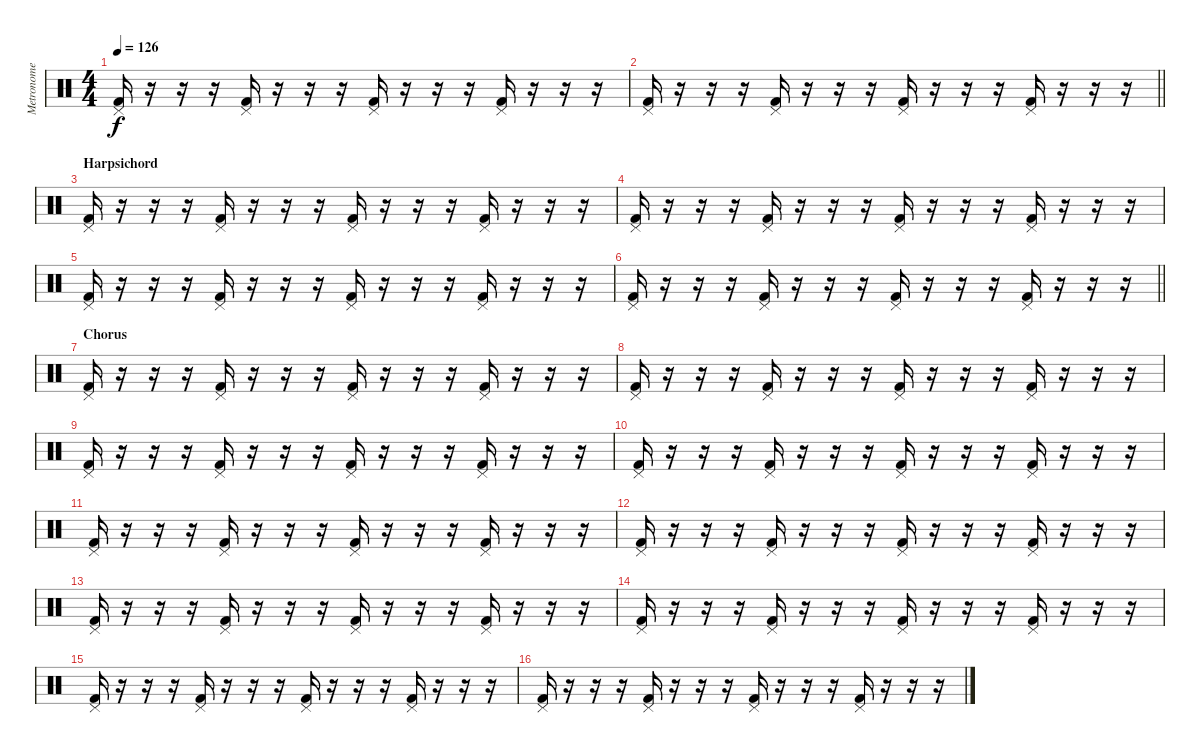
\track ("Metronome" "Metronome") {mute instrument percussion}
\staff {score}
\articulation defaults
\ts (4 4)
\tempo 126
\clef neutral
\ks c
("Pedal Hi-Hat (hit)" "Kick (hit) 2").16{dy f} r.16 r.16 r.16 ("Pedal Hi-Hat (hit)" "Kick (hit) 2").16 r.16 r.16 r.16 ("Pedal Hi-Hat (hit)" "Kick (hit) 2").16 r.16 r.16 r.16 ("Pedal Hi-Hat (hit)" "Kick (hit) 2").16 r.16 r.16 r.16 |
\barLineRight lightlight
("Pedal Hi-Hat (hit)" "Kick (hit) 2").16 r.16 r.16 r.16 ("Pedal Hi-Hat (hit)" "Kick (hit) 2").16 r.16 r.16 r.16 ("Pedal Hi-Hat (hit)" "Kick (hit) 2").16 r.16 r.16 r.16 ("Pedal Hi-Hat (hit)" "Kick (hit) 2").16 r.16 r.16 r.16 |
\section ("" "Harpsichord")
("Pedal Hi-Hat (hit)" "Kick (hit) 2").16 r.16 r.16 r.16 ("Pedal Hi-Hat (hit)" "Kick (hit) 2").16 r.16 r.16 r.16 ("Pedal Hi-Hat (hit)" "Kick (hit) 2").16 r.16 r.16 r.16 ("Pedal Hi-Hat (hit)" "Kick (hit) 2").16 r.16 r.16 r.16 |
("Pedal Hi-Hat (hit)" "Kick (hit) 2").16 r.16 r.16 r.16 ("Pedal Hi-Hat (hit)" "Kick (hit) 2").16 r.16 r.16 r.16 ("Pedal Hi-Hat (hit)" "Kick (hit) 2").16 r.16 r.16 r.16 ("Pedal Hi-Hat (hit)" "Kick (hit) 2").16 r.16 r.16 r.16 |
("Pedal Hi-Hat (hit)" "Kick (hit) 2").16 r.16 r.16 r.16 ("Pedal Hi-Hat (hit)" "Kick (hit) 2").16 r.16 r.16 r.16 ("Pedal Hi-Hat (hit)" "Kick (hit) 2").16 r.16 r.16 r.16 ("Pedal Hi-Hat (hit)" "Kick (hit) 2").16 r.16 r.16 r.16 |
\barLineRight lightlight
("Pedal Hi-Hat (hit)" "Kick (hit) 2").16 r.16 r.16 r.16 ("Pedal Hi-Hat (hit)" "Kick (hit) 2").16 r.16 r.16 r.16 ("Pedal Hi-Hat (hit)" "Kick (hit) 2").16 r.16 r.16 r.16 ("Pedal Hi-Hat (hit)" "Kick (hit) 2").16 r.16 r.16 r.16 |
\section ("" "Chorus")
("Pedal Hi-Hat (hit)" "Kick (hit) 2").16 r.16 r.16 r.16 ("Pedal Hi-Hat (hit)" "Kick (hit) 2").16 r.16 r.16 r.16 ("Pedal Hi-Hat (hit)" "Kick (hit) 2").16 r.16 r.16 r.16 ("Pedal Hi-Hat (hit)" "Kick (hit) 2").16 r.16 r.16 r.16 |
("Pedal Hi-Hat (hit)" "Kick (hit) 2").16 r.16 r.16 r.16 ("Pedal Hi-Hat (hit)" "Kick (hit) 2").16 r.16 r.16 r.16 ("Pedal Hi-Hat (hit)" "Kick (hit) 2").16 r.16 r.16 r.16 ("Pedal Hi-Hat (hit)" "Kick (hit) 2").16 r.16 r.16 r.16 |
("Pedal Hi-Hat (hit)" "Kick (hit) 2").16 r.16 r.16 r.16 ("Pedal Hi-Hat (hit)" "Kick (hit) 2").16 r.16 r.16 r.16 ("Pedal Hi-Hat (hit)" "Kick (hit) 2").16 r.16 r.16 r.16 ("Pedal Hi-Hat (hit)" "Kick (hit) 2").16 r.16 r.16 r.16 |
("Pedal Hi-Hat (hit)" "Kick (hit) 2").16 r.16 r.16 r.16 ("Pedal Hi-Hat (hit)" "Kick (hit) 2").16 r.16 r.16 r.16 ("Pedal Hi-Hat (hit)" "Kick (hit) 2").16 r.16 r.16 r.16 ("Pedal Hi-Hat (hit)" "Kick (hit) 2").16 r.16 r.16 r.16 |
("Pedal Hi-Hat (hit)" "Kick (hit) 2").16 r.16 r.16 r.16 ("Pedal Hi-Hat (hit)" "Kick (hit) 2").16 r.16 r.16 r.16 ("Pedal Hi-Hat (hit)" "Kick (hit) 2").16 r.16 r.16 r.16 ("Pedal Hi-Hat (hit)" "Kick (hit) 2").16 r.16 r.16 r.16 |
("Pedal Hi-Hat (hit)" "Kick (hit) 2").16 r.16 r.16 r.16 ("Pedal Hi-Hat (hit)" "Kick (hit) 2").16 r.16 r.16 r.16 ("Pedal Hi-Hat (hit)" "Kick (hit) 2").16 r.16 r.16 r.16 ("Pedal Hi-Hat (hit)" "Kick (hit) 2").16 r.16 r.16 r.16 |
("Pedal Hi-Hat (hit)" "Kick (hit) 2").16 r.16 r.16 r.16 ("Pedal Hi-Hat (hit)" "Kick (hit) 2").16 r.16 r.16 r.16 ("Pedal Hi-Hat (hit)" "Kick (hit) 2").16 r.16 r.16 r.16 ("Pedal Hi-Hat (hit)" "Kick (hit) 2").16 r.16 r.16 r.16 |
("Pedal Hi-Hat (hit)" "Kick (hit) 2").16 r.16 r.16 r.16 ("Pedal Hi-Hat (hit)" "Kick (hit) 2").16 r.16 r.16 r.16 ("Pedal Hi-Hat (hit)" "Kick (hit) 2").16 r.16 r.16 r.16 ("Pedal Hi-Hat (hit)" "Kick (hit) 2").16 r.16 r.16 r.16 |
("Pedal Hi-Hat (hit)" "Kick (hit) 2").16 r.16 r.16 r.16 ("Pedal Hi-Hat (hit)" "Kick (hit) 2").16 r.16 r.16 r.16 ("Pedal Hi-Hat (hit)" "Kick (hit) 2").16 r.16 r.16 r.16 ("Pedal Hi-Hat (hit)" "Kick (hit) 2").16 r.16 r.16 r.16 |
("Pedal Hi-Hat (hit)" "Kick (hit) 2").16 r.16 r.16 r.16 ("Pedal Hi-Hat (hit)" "Kick (hit) 2").16 r.16 r.16 r.16 ("Pedal Hi-Hat (hit)" "Kick (hit) 2").16 r.16 r.16 r.16 ("Pedal Hi-Hat (hit)" "Kick (hit) 2").16 r.16 r.16 r.16
